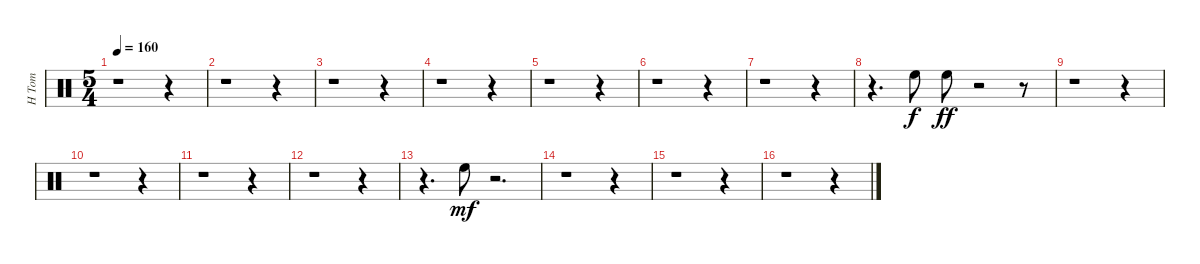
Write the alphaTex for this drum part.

\track ("H Tom" "H Tom") {instrument percussion}
\staff {score}
\articulation defaults
\ts (5 4)
\tempo 160
\clef neutral
\ks c
r.1{dy ff} r.4 |
r.1 r.4 |
r.1 r.4 |
r.1 r.4 |
r.1 r.4 |
r.1 r.4 |
r.1 r.4 |
r.4{d} "High Floor Tom (hit)".8{dy f} "High Floor Tom (hit)".8{dy ff} r.2 r.8 |
r.1 r.4 |
r.1 r.4 |
r.1 r.4 |
r.1 r.4 |
r.4{d} "High Floor Tom (hit)".8{dy mf} r.2{d} |
r.1 r.4 |
r.1 r.4 |
r.1 r.4
